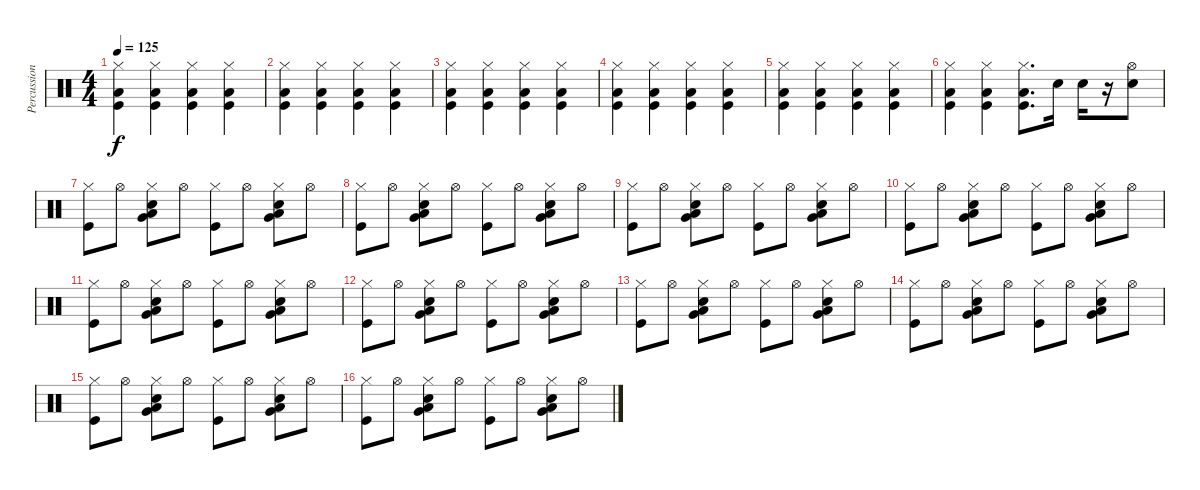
\track ("Percussions" "Percussion") {instrument percussion}
\staff {score}
\articulation defaults
\ts (4 4)
\tempo 125
\clef neutral
\ks c
("Hi-Hat (closed)" "Low Floor Tom (hit)" "Kick (hit)").4{dy f} ("Hi-Hat (closed)" "Low Floor Tom (hit)" "Kick (hit)").4 ("Hi-Hat (closed)" "Low Floor Tom (hit)" "Kick (hit)").4 ("Hi-Hat (closed)" "Low Floor Tom (hit)" "Kick (hit)").4 |
("Hi-Hat (closed)" "Low Floor Tom (hit)" "Kick (hit)").4 ("Hi-Hat (closed)" "Low Floor Tom (hit)" "Kick (hit)").4 ("Hi-Hat (closed)" "Low Floor Tom (hit)" "Kick (hit)").4 ("Hi-Hat (closed)" "Low Floor Tom (hit)" "Kick (hit)").4 |
("Hi-Hat (closed)" "Low Floor Tom (hit)" "Kick (hit)").4 ("Hi-Hat (closed)" "Low Floor Tom (hit)" "Kick (hit)").4 ("Hi-Hat (closed)" "Low Floor Tom (hit)" "Kick (hit)").4 ("Hi-Hat (closed)" "Low Floor Tom (hit)" "Kick (hit)").4 |
("Hi-Hat (closed)" "Low Floor Tom (hit)" "Kick (hit)").4 ("Hi-Hat (closed)" "Low Floor Tom (hit)" "Kick (hit)").4 ("Hi-Hat (closed)" "Low Floor Tom (hit)" "Kick (hit)").4 ("Hi-Hat (closed)" "Low Floor Tom (hit)" "Kick (hit)").4 |
("Hi-Hat (closed)" "Low Floor Tom (hit)" "Kick (hit)").4 ("Hi-Hat (closed)" "Low Floor Tom (hit)" "Kick (hit)").4 ("Hi-Hat (closed)" "Low Floor Tom (hit)" "Kick (hit)").4 ("Hi-Hat (closed)" "Low Floor Tom (hit)" "Kick (hit)").4 |
("Hi-Hat (closed)" "Kick (hit)" "Low Floor Tom (hit)").4 ("Hi-Hat (closed)" "Kick (hit)" "Low Floor Tom (hit)").4 ("Hi-Hat (closed)" "Kick (hit)" "Low Floor Tom (hit)").8{d} "Snare (hit) 2".16 "Snare (hit) 2".16 r.16 ("Hi-Hat (open)" "Snare (hit) 2").8 |
("Hi-Hat (closed)" "Kick (hit)").8 "Hi-Hat (open)".8 ("Hi-Hat (closed)" "Very Low Tom (hit)" "Low Floor Tom (hit)" "Snare (hit) 2").8 "Hi-Hat (open)".8 ("Hi-Hat (closed)" "Kick (hit)").8 "Hi-Hat (open)".8 ("Hi-Hat (closed)" "Very Low Tom (hit)" "Low Floor Tom (hit)" "Snare (hit) 2").8 "Hi-Hat (open)".8 |
("Hi-Hat (closed)" "Kick (hit)").8 "Hi-Hat (open)".8 ("Hi-Hat (closed)" "Very Low Tom (hit)" "Low Floor Tom (hit)" "Snare (hit) 2").8 "Hi-Hat (open)".8 ("Hi-Hat (closed)" "Kick (hit)").8 "Hi-Hat (open)".8 ("Hi-Hat (closed)" "Very Low Tom (hit)" "Low Floor Tom (hit)" "Snare (hit) 2").8 "Hi-Hat (open)".8 |
("Hi-Hat (closed)" "Kick (hit)").8 "Hi-Hat (open)".8 ("Hi-Hat (closed)" "Very Low Tom (hit)" "Low Floor Tom (hit)" "Snare (hit) 2").8 "Hi-Hat (open)".8 ("Hi-Hat (closed)" "Kick (hit)").8 "Hi-Hat (open)".8 ("Hi-Hat (closed)" "Very Low Tom (hit)" "Low Floor Tom (hit)" "Snare (hit) 2").8 "Hi-Hat (open)".8 |
("Hi-Hat (closed)" "Kick (hit)").8 "Hi-Hat (open)".8 ("Hi-Hat (closed)" "Very Low Tom (hit)" "Low Floor Tom (hit)" "Snare (hit) 2").8 "Hi-Hat (open)".8 ("Hi-Hat (closed)" "Kick (hit)").8 "Hi-Hat (open)".8 ("Hi-Hat (closed)" "Very Low Tom (hit)" "Low Floor Tom (hit)" "Snare (hit) 2").8 "Hi-Hat (open)".8 |
("Hi-Hat (closed)" "Kick (hit)").8 "Hi-Hat (open)".8 ("Hi-Hat (closed)" "Very Low Tom (hit)" "Low Floor Tom (hit)" "Snare (hit) 2").8 "Hi-Hat (open)".8 ("Hi-Hat (closed)" "Kick (hit)").8 "Hi-Hat (open)".8 ("Hi-Hat (closed)" "Very Low Tom (hit)" "Low Floor Tom (hit)" "Snare (hit) 2").8 "Hi-Hat (open)".8 |
("Hi-Hat (closed)" "Kick (hit)").8 "Hi-Hat (open)".8 ("Hi-Hat (closed)" "Very Low Tom (hit)" "Low Floor Tom (hit)" "Snare (hit) 2").8 "Hi-Hat (open)".8 ("Hi-Hat (closed)" "Kick (hit)").8 "Hi-Hat (open)".8 ("Hi-Hat (closed)" "Very Low Tom (hit)" "Low Floor Tom (hit)" "Snare (hit) 2").8 "Hi-Hat (open)".8 |
("Hi-Hat (closed)" "Kick (hit)").8 "Hi-Hat (open)".8 ("Hi-Hat (closed)" "Very Low Tom (hit)" "Low Floor Tom (hit)" "Snare (hit) 2").8 "Hi-Hat (open)".8 ("Hi-Hat (closed)" "Kick (hit)").8 "Hi-Hat (open)".8 ("Hi-Hat (closed)" "Very Low Tom (hit)" "Low Floor Tom (hit)" "Snare (hit) 2").8 "Hi-Hat (open)".8 |
("Hi-Hat (closed)" "Kick (hit)").8 "Hi-Hat (open)".8 ("Hi-Hat (closed)" "Very Low Tom (hit)" "Low Floor Tom (hit)" "Snare (hit) 2").8 "Hi-Hat (open)".8 ("Hi-Hat (closed)" "Kick (hit)").8 "Hi-Hat (open)".8 ("Hi-Hat (closed)" "Very Low Tom (hit)" "Low Floor Tom (hit)" "Snare (hit) 2").8 "Hi-Hat (open)".8 |
("Hi-Hat (closed)" "Kick (hit)").8 "Hi-Hat (open)".8 ("Hi-Hat (closed)" "Very Low Tom (hit)" "Low Floor Tom (hit)" "Snare (hit) 2").8 "Hi-Hat (open)".8 ("Hi-Hat (closed)" "Kick (hit)").8 "Hi-Hat (open)".8 ("Hi-Hat (closed)" "Very Low Tom (hit)" "Low Floor Tom (hit)" "Snare (hit) 2").8 "Hi-Hat (open)".8 |
("Hi-Hat (closed)" "Kick (hit)").8 "Hi-Hat (open)".8 ("Hi-Hat (closed)" "Very Low Tom (hit)" "Low Floor Tom (hit)" "Snare (hit) 2").8 "Hi-Hat (open)".8 ("Hi-Hat (closed)" "Kick (hit)").8 "Hi-Hat (open)".8 ("Hi-Hat (closed)" "Very Low Tom (hit)" "Low Floor Tom (hit)" "Snare (hit) 2").8 "Hi-Hat (open)".8
